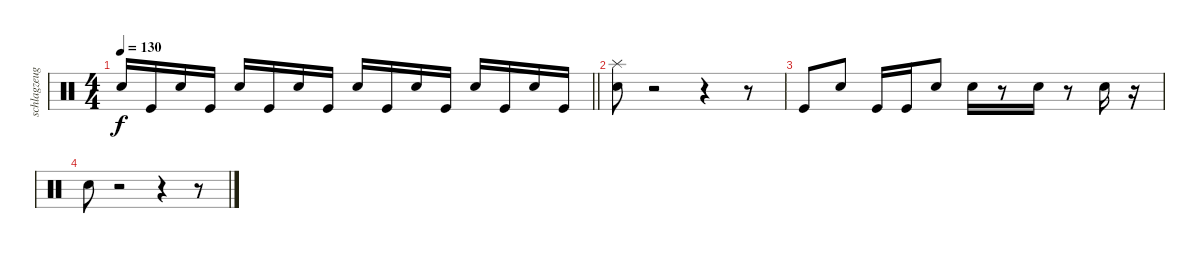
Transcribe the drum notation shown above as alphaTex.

\track ("schlagzeug" "schlagzeug") {instrument percussion}
\staff {score}
\articulation defaults
\ts (4 4)
\tempo 130
\clef neutral
\barLineRight lightlight
\ks c "Snare (hit) 2".16{dy f} "Kick (hit)".16 "Snare (hit) 2".16 "Kick (hit)".16 "Snare (hit) 2".16 "Kick (hit)".16 "Snare (hit) 2".16 "Kick (hit)".16 "Snare (hit) 2".16 "Kick (hit)".16 "Snare (hit) 2".16 "Kick (hit)".16 "Snare (hit) 2".16 "Kick (hit)".16 "Snare (hit) 2".16 "Kick (hit)".16
|
("Snare (hit) 2" "Splash (hit)").8 r.2 r.4 r.8 |
"Kick (hit)".8 "Snare (hit) 2".8 "Kick (hit)".16 "Kick (hit)".16 "Snare (hit) 2".8 "Snare (hit) 2".16 r.8 "Snare (hit) 2".16 r.8 "Snare (hit) 2".16 r.16 |
"Snare (hit) 2".8 r.2 r.4 r.8
